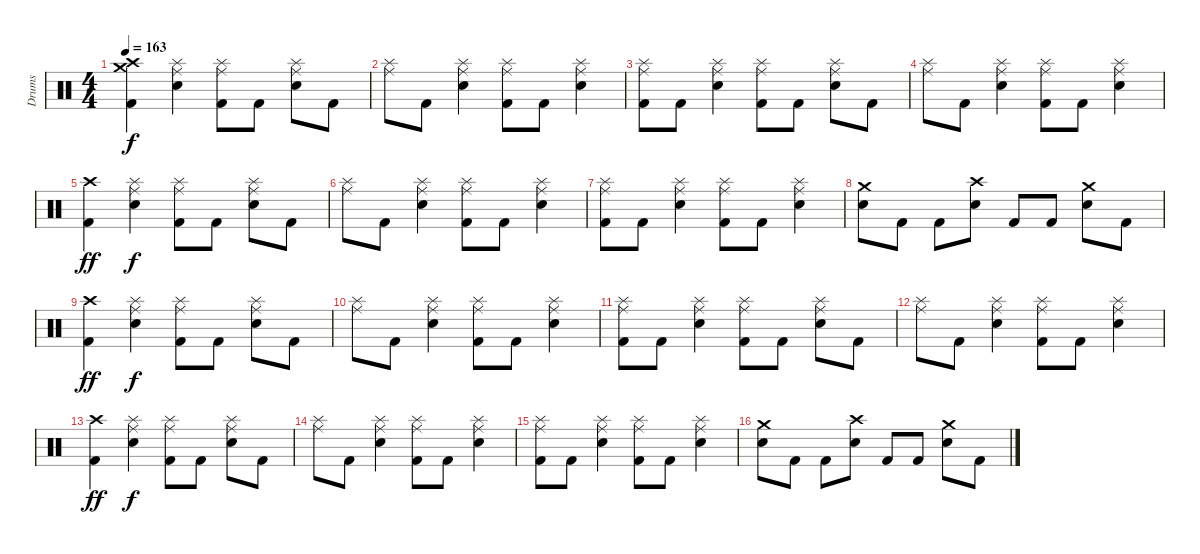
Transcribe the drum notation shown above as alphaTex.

\track ("Drums" "Drums") {instrument percussion}
\staff {score}
\articulation defaults
\ts (4 4)
\tempo 163
\clef neutral
\ks c
("Crash high (hit)" "Crash medium (hit)" "Kick (hit) 2").4{dy f} ("Splash (hit)" "Ride (middle)" "Electric Snare (hit)").4 ("Splash (hit)" "Ride (middle)" "Kick (hit) 2").8 "Kick (hit) 2".8 ("Splash (hit)" "Ride (middle)" "Electric Snare (hit)").8 "Kick (hit) 2".8 |
("Splash (hit)" "Ride (middle)").8 "Kick (hit) 2".8 ("Splash (hit)" "Ride (middle)" "Electric Snare (hit)").4 ("Splash (hit)" "Ride (middle)" "Kick (hit) 2").8 "Kick (hit) 2".8 ("Splash (hit)" "Ride (middle)" "Electric Snare (hit)").4 |
("Splash (hit)" "Ride (middle)" "Kick (hit) 2").8 "Kick (hit) 2".8 ("Splash (hit)" "Ride (middle)" "Electric Snare (hit)").4 ("Splash (hit)" "Ride (middle)" "Kick (hit) 2").8 "Kick (hit) 2".8 ("Splash (hit)" "Ride (middle)" "Electric Snare (hit)").8 "Kick (hit) 2".8 |
("Splash (hit)" "Ride (middle)").8 "Kick (hit) 2".8 ("Splash (hit)" "Ride (middle)" "Electric Snare (hit)").4 ("Splash (hit)" "Ride (middle)" "Kick (hit) 2").8 "Kick (hit) 2".8 ("Splash (hit)" "Ride (middle)" "Electric Snare (hit)").4 |
("Crash high (hit)" "Kick (hit) 2").4{dy ff} ("Splash (hit)" "Ride (middle)" "Electric Snare (hit)").4{dy f} ("Splash (hit)" "Ride (middle)" "Kick (hit) 2").8 "Kick (hit) 2".8 ("Splash (hit)" "Ride (middle)" "Electric Snare (hit)").8 "Kick (hit) 2".8 |
("Splash (hit)" "Ride (middle)").8 "Kick (hit) 2".8 ("Splash (hit)" "Ride (middle)" "Electric Snare (hit)").4 ("Splash (hit)" "Ride (middle)" "Kick (hit) 2").8 "Kick (hit) 2".8 ("Splash (hit)" "Ride (middle)" "Electric Snare (hit)").4 |
("Splash (hit)" "Ride (middle)" "Kick (hit) 2").8 "Kick (hit) 2".8 ("Splash (hit)" "Ride (middle)" "Electric Snare (hit)").4 ("Splash (hit)" "Ride (middle)" "Kick (hit) 2").8 "Kick (hit) 2".8 ("Splash (hit)" "Ride (middle)" "Electric Snare (hit)").4 |
("Crash medium (hit)" "Electric Snare (hit)").8 "Kick (hit) 2".8 "Kick (hit) 2".8 ("Crash high (hit)" "Electric Snare (hit)").8 "Kick (hit) 2".8 "Kick (hit) 2".8 ("Crash medium (hit)" "Electric Snare (hit)").8 "Kick (hit) 2".8 |
("Crash high (hit)" "Kick (hit) 2").4{dy ff} ("Splash (hit)" "Ride (middle)" "Electric Snare (hit)").4{dy f} ("Splash (hit)" "Ride (middle)" "Kick (hit) 2").8 "Kick (hit) 2".8 ("Splash (hit)" "Ride (middle)" "Electric Snare (hit)").8 "Kick (hit) 2".8 |
("Splash (hit)" "Ride (middle)").8 "Kick (hit) 2".8 ("Splash (hit)" "Ride (middle)" "Electric Snare (hit)").4 ("Splash (hit)" "Ride (middle)" "Kick (hit) 2").8 "Kick (hit) 2".8 ("Splash (hit)" "Ride (middle)" "Electric Snare (hit)").4 |
("Splash (hit)" "Ride (middle)" "Kick (hit) 2").8 "Kick (hit) 2".8 ("Splash (hit)" "Ride (middle)" "Electric Snare (hit)").4 ("Splash (hit)" "Ride (middle)" "Kick (hit) 2").8 "Kick (hit) 2".8 ("Splash (hit)" "Ride (middle)" "Electric Snare (hit)").8 "Kick (hit) 2".8 |
("Splash (hit)" "Ride (middle)").8 "Kick (hit) 2".8 ("Splash (hit)" "Ride (middle)" "Electric Snare (hit)").4 ("Splash (hit)" "Ride (middle)" "Kick (hit) 2").8 "Kick (hit) 2".8 ("Splash (hit)" "Ride (middle)" "Electric Snare (hit)").4 |
("Crash high (hit)" "Kick (hit) 2").4{dy ff} ("Splash (hit)" "Ride (middle)" "Electric Snare (hit)").4{dy f} ("Splash (hit)" "Ride (middle)" "Kick (hit) 2").8 "Kick (hit) 2".8 ("Splash (hit)" "Ride (middle)" "Electric Snare (hit)").8 "Kick (hit) 2".8 |
("Splash (hit)" "Ride (middle)").8 "Kick (hit) 2".8 ("Splash (hit)" "Ride (middle)" "Electric Snare (hit)").4 ("Splash (hit)" "Ride (middle)" "Kick (hit) 2").8 "Kick (hit) 2".8 ("Splash (hit)" "Ride (middle)" "Electric Snare (hit)").4 |
("Splash (hit)" "Ride (middle)" "Kick (hit) 2").8 "Kick (hit) 2".8 ("Splash (hit)" "Ride (middle)" "Electric Snare (hit)").4 ("Splash (hit)" "Ride (middle)" "Kick (hit) 2").8 "Kick (hit) 2".8 ("Splash (hit)" "Ride (middle)" "Electric Snare (hit)").4 |
("Crash medium (hit)" "Electric Snare (hit)").8 "Kick (hit) 2".8 "Kick (hit) 2".8 ("Crash high (hit)" "Electric Snare (hit)").8 "Kick (hit) 2".8 "Kick (hit) 2".8 ("Crash medium (hit)" "Electric Snare (hit)").8 "Kick (hit) 2".8
